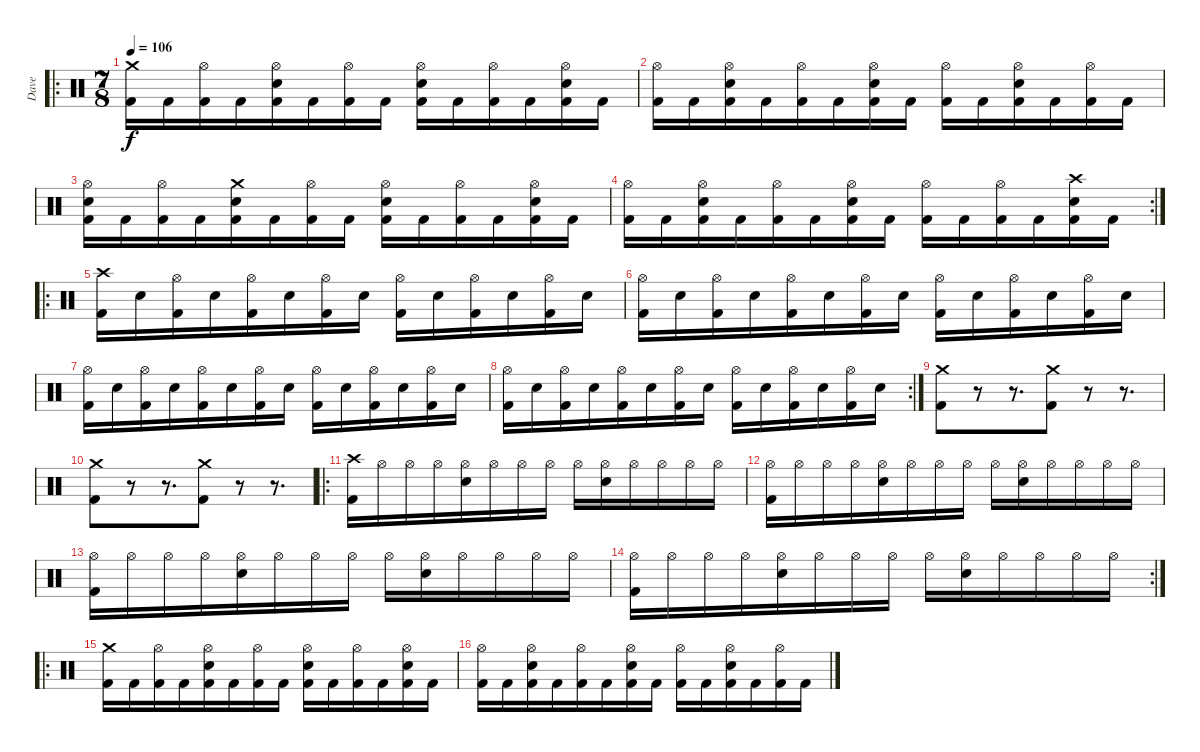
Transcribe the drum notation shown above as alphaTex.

\track ("Dave" "Dave") {instrument percussion}
\staff {score}
\articulation defaults
\ro
\ts (7 8)
\tempo 106
\clef neutral
\ks c
("Crash medium (hit)" "Kick (hit) 2").16{dy f} "Kick (hit) 2".16 ("Hi-Hat (open)" "Kick (hit) 2").16 "Kick (hit) 2".16 ("Hi-Hat (open)" "Electric Snare (hit)" "Kick (hit) 2").16 "Kick (hit) 2".16 ("Hi-Hat (open)" "Kick (hit) 2").16 "Kick (hit) 2".16 ("Hi-Hat (open)" "Electric Snare (hit)" "Kick (hit) 2").16 "Kick (hit) 2".16 ("Hi-Hat (open)" "Kick (hit) 2").16 "Kick (hit) 2".16 ("Hi-Hat (open)" "Electric Snare (hit)" "Kick (hit) 2").16 "Kick (hit) 2".16 |
("Hi-Hat (open)" "Kick (hit) 2").16 "Kick (hit) 2".16 ("Hi-Hat (open)" "Electric Snare (hit)" "Kick (hit) 2").16 "Kick (hit) 2".16 ("Hi-Hat (open)" "Kick (hit) 2").16 "Kick (hit) 2".16 ("Hi-Hat (open)" "Electric Snare (hit)" "Kick (hit) 2").16 "Kick (hit) 2".16 ("Hi-Hat (open)" "Kick (hit) 2").16 "Kick (hit) 2".16 ("Hi-Hat (open)" "Electric Snare (hit)" "Kick (hit) 2").16 "Kick (hit) 2".16 ("Hi-Hat (open)" "Kick (hit) 2").16 "Kick (hit) 2".16 |
("Hi-Hat (open)" "Electric Snare (hit)" "Kick (hit) 2").16 "Kick (hit) 2".16 ("Hi-Hat (open)" "Kick (hit) 2").16 "Kick (hit) 2".16 ("Crash medium (hit)" "Electric Snare (hit)" "Kick (hit) 2").16 "Kick (hit) 2".16 ("Hi-Hat (open)" "Kick (hit) 2").16 "Kick (hit) 2".16 ("Hi-Hat (open)" "Electric Snare (hit)" "Kick (hit) 2").16 "Kick (hit) 2".16 ("Hi-Hat (open)" "Kick (hit) 2").16 "Kick (hit) 2".16 ("Hi-Hat (open)" "Electric Snare (hit)" "Kick (hit) 2").16 "Kick (hit) 2".16 |
\rc 2
("Hi-Hat (open)" "Kick (hit) 2").16 "Kick (hit) 2".16 ("Hi-Hat (open)" "Electric Snare (hit)" "Kick (hit) 2").16 "Kick (hit) 2".16 ("Hi-Hat (open)" "Kick (hit) 2").16 "Kick (hit) 2".16 ("Hi-Hat (open)" "Electric Snare (hit)" "Kick (hit) 2").16 "Kick (hit) 2".16 ("Hi-Hat (open)" "Kick (hit) 2").16 "Kick (hit) 2".16 ("Hi-Hat (open)" "Kick (hit) 2").16 "Kick (hit) 2".16 ("Electric Snare (hit)" "Crash high (hit)" "Kick (hit) 2").16 "Kick (hit) 2".16 |
\ro
("Crash high (hit)" "Kick (hit) 2").16 "Electric Snare (hit)".16 ("Hi-Hat (open)" "Kick (hit) 2").16 "Electric Snare (hit)".16 ("Hi-Hat (open)" "Kick (hit) 2").16 "Electric Snare (hit)".16 ("Hi-Hat (open)" "Kick (hit) 2").16 "Electric Snare (hit)".16 ("Hi-Hat (open)" "Kick (hit) 2").16 "Electric Snare (hit)".16 ("Hi-Hat (open)" "Kick (hit) 2").16 "Electric Snare (hit)".16 ("Hi-Hat (open)" "Kick (hit) 2").16 "Electric Snare (hit)".16 |
("Hi-Hat (open)" "Kick (hit) 2").16 "Electric Snare (hit)".16 ("Hi-Hat (open)" "Kick (hit) 2").16 "Electric Snare (hit)".16 ("Hi-Hat (open)" "Kick (hit) 2").16 "Electric Snare (hit)".16 ("Hi-Hat (open)" "Kick (hit) 2").16 "Electric Snare (hit)".16 ("Hi-Hat (open)" "Kick (hit) 2").16 "Electric Snare (hit)".16 ("Hi-Hat (open)" "Kick (hit) 2").16 "Electric Snare (hit)".16 ("Hi-Hat (open)" "Kick (hit) 2").16 "Electric Snare (hit)".16 |
("Hi-Hat (open)" "Kick (hit) 2").16 "Electric Snare (hit)".16 ("Hi-Hat (open)" "Kick (hit) 2").16 "Electric Snare (hit)".16 ("Hi-Hat (open)" "Kick (hit) 2").16 "Electric Snare (hit)".16 ("Hi-Hat (open)" "Kick (hit) 2").16 "Electric Snare (hit)".16 ("Hi-Hat (open)" "Kick (hit) 2").16 "Electric Snare (hit)".16 ("Hi-Hat (open)" "Kick (hit) 2").16 "Electric Snare (hit)".16 ("Hi-Hat (open)" "Kick (hit) 2").16 "Electric Snare (hit)".16 |
\rc 2
("Hi-Hat (open)" "Kick (hit) 2").16 "Electric Snare (hit)".16 ("Hi-Hat (open)" "Kick (hit) 2").16 "Electric Snare (hit)".16 ("Hi-Hat (open)" "Kick (hit) 2").16 "Electric Snare (hit)".16 ("Hi-Hat (open)" "Kick (hit) 2").16 "Electric Snare (hit)".16 ("Hi-Hat (open)" "Kick (hit) 2").16 "Electric Snare (hit)".16 ("Hi-Hat (open)" "Kick (hit) 2").16 "Electric Snare (hit)".16 ("Hi-Hat (open)" "Kick (hit) 2").16 "Electric Snare (hit)".16 |
("Crash medium (hit)" "Kick (hit) 2").8 r.8 r.8{d} ("Crash medium (hit)" "Kick (hit) 2").8 r.8 r.8{d} |
("Crash medium (hit)" "Kick (hit) 2").8 r.8 r.8{d} ("Crash medium (hit)" "Kick (hit) 2").8 r.8 r.8{d} |
\ro
("Crash high (hit)" "Kick (hit) 2").16 "Hi-Hat (open)".16 "Hi-Hat (open)".16 "Hi-Hat (open)".16 ("Hi-Hat (open)" "Electric Snare (hit)").16 "Hi-Hat (open)".16 "Hi-Hat (open)".16 "Hi-Hat (open)".16 "Hi-Hat (open)".16 ("Hi-Hat (open)" "Electric Snare (hit)").16 "Hi-Hat (open)".16 "Hi-Hat (open)".16 "Hi-Hat (open)".16 "Hi-Hat (open)".16 |
("Hi-Hat (open)" "Kick (hit) 2").16 "Hi-Hat (open)".16 "Hi-Hat (open)".16 "Hi-Hat (open)".16 ("Hi-Hat (open)" "Electric Snare (hit)").16 "Hi-Hat (open)".16 "Hi-Hat (open)".16 "Hi-Hat (open)".16 "Hi-Hat (open)".16 ("Hi-Hat (open)" "Electric Snare (hit)").16 "Hi-Hat (open)".16 "Hi-Hat (open)".16 "Hi-Hat (open)".16 "Hi-Hat (open)".16 |
("Hi-Hat (open)" "Kick (hit) 2").16 "Hi-Hat (open)".16 "Hi-Hat (open)".16 "Hi-Hat (open)".16 ("Hi-Hat (open)" "Electric Snare (hit)").16 "Hi-Hat (open)".16 "Hi-Hat (open)".16 "Hi-Hat (open)".16 "Hi-Hat (open)".16 ("Hi-Hat (open)" "Electric Snare (hit)").16 "Hi-Hat (open)".16 "Hi-Hat (open)".16 "Hi-Hat (open)".16 "Hi-Hat (open)".16 |
\rc 2
("Hi-Hat (open)" "Kick (hit) 2").16 "Hi-Hat (open)".16 "Hi-Hat (open)".16 "Hi-Hat (open)".16 ("Hi-Hat (open)" "Electric Snare (hit)").16 "Hi-Hat (open)".16 "Hi-Hat (open)".16 "Hi-Hat (open)".16 "Hi-Hat (open)".16 ("Hi-Hat (open)" "Electric Snare (hit)").16 "Hi-Hat (open)".16 "Hi-Hat (open)".16 "Hi-Hat (open)".16 "Hi-Hat (open)".16 |
\ro
("Crash medium (hit)" "Kick (hit) 2").16 "Kick (hit) 2".16 ("Hi-Hat (open)" "Kick (hit) 2").16 "Kick (hit) 2".16 ("Hi-Hat (open)" "Electric Snare (hit)" "Kick (hit) 2").16 "Kick (hit) 2".16 ("Hi-Hat (open)" "Kick (hit) 2").16 "Kick (hit) 2".16 ("Hi-Hat (open)" "Electric Snare (hit)" "Kick (hit) 2").16 "Kick (hit) 2".16 ("Hi-Hat (open)" "Kick (hit) 2").16 "Kick (hit) 2".16 ("Hi-Hat (open)" "Electric Snare (hit)" "Kick (hit) 2").16 "Kick (hit) 2".16 |
("Hi-Hat (open)" "Kick (hit) 2").16 "Kick (hit) 2".16 ("Hi-Hat (open)" "Electric Snare (hit)" "Kick (hit) 2").16 "Kick (hit) 2".16 ("Hi-Hat (open)" "Kick (hit) 2").16 "Kick (hit) 2".16 ("Hi-Hat (open)" "Electric Snare (hit)" "Kick (hit) 2").16 "Kick (hit) 2".16 ("Hi-Hat (open)" "Kick (hit) 2").16 "Kick (hit) 2".16 ("Hi-Hat (open)" "Electric Snare (hit)" "Kick (hit) 2").16 "Kick (hit) 2".16 ("Hi-Hat (open)" "Kick (hit) 2").16 "Kick (hit) 2".16
